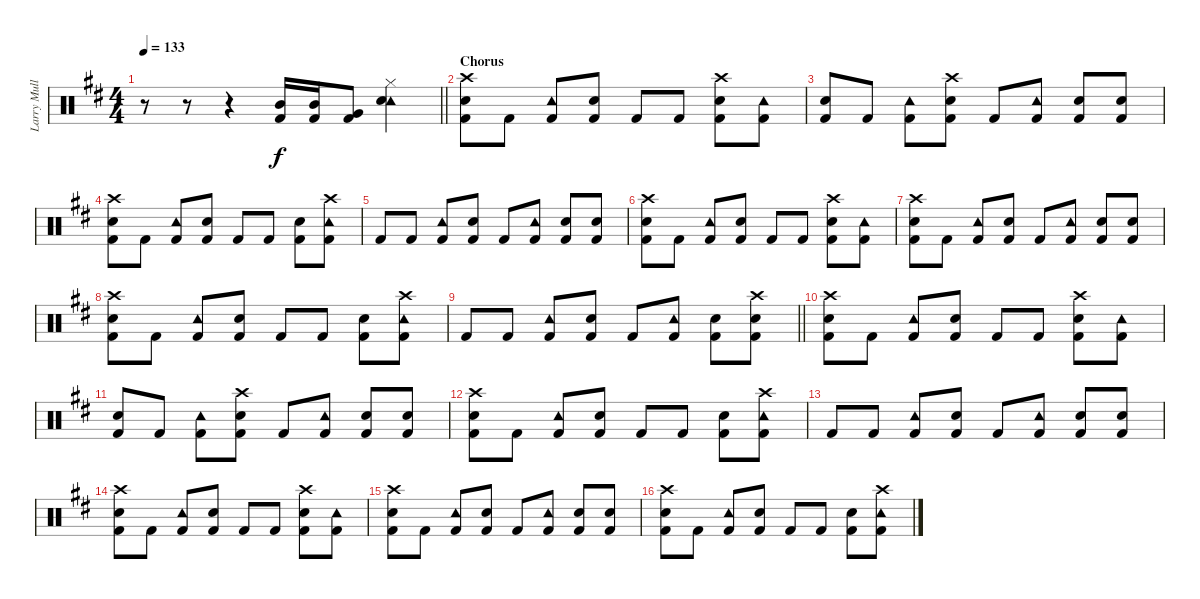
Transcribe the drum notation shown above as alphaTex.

\track ("Larry Mullen Jr." "Larry Mull") {instrument percussion}
\staff {score}
\articulation defaults
\ts (4 4)
\tempo 133
\clef neutral
\barLineRight lightlight
\ks d
r.8{dy f} r.8 r.4 ("Kick (hit) 2" "Mid Tom (hit)").16 ("Kick (hit) 2" "Mid Tom (hit)").16 ("Kick (hit) 2" "Very Low Tom (hit)").8 ("Tambourine (hit)" "Snare (hit) 2" "Hi-Hat (closed)").4 |
\section ("" "Chorus")
("Kick (hit) 2" "Crash high (hit)" "Snare (hit) 2").8 "Kick (hit) 2".8 ("Kick (hit) 2" "Tambourine (hit)").8 ("Kick (hit) 2" "Snare (hit) 2").8 "Kick (hit) 2".8 "Kick (hit) 2".8 ("Kick (hit) 2" "Snare (hit) 2" "Crash high (hit)").8 ("Kick (hit) 2" "Tambourine (hit)").8 |
("Kick (hit) 2" "Snare (hit) 2").8 "Kick (hit) 2".8 ("Kick (hit) 2" "Tambourine (hit)").8 ("Kick (hit) 2" "Snare (hit) 2" "Crash high (hit)").8 "Kick (hit) 2".8 ("Kick (hit) 2" "Tambourine (hit)").8 ("Kick (hit) 2" "Snare (hit) 2").8 ("Kick (hit) 2" "Snare (hit) 2").8 |
("Kick (hit) 2" "Crash high (hit)" "Snare (hit) 2").8 "Kick (hit) 2".8 ("Kick (hit) 2" "Tambourine (hit)").8 ("Kick (hit) 2" "Snare (hit) 2").8 "Kick (hit) 2".8 "Kick (hit) 2".8 ("Kick (hit) 2" "Snare (hit) 2").8 ("Kick (hit) 2" "Tambourine (hit)" "Crash high (hit)").8 |
"Kick (hit) 2".8 "Kick (hit) 2".8 ("Kick (hit) 2" "Tambourine (hit)").8 ("Kick (hit) 2" "Snare (hit) 2").8 "Kick (hit) 2".8 ("Kick (hit) 2" "Tambourine (hit)").8 ("Kick (hit) 2" "Snare (hit) 2").8 ("Kick (hit) 2" "Snare (hit) 2").8 |
("Kick (hit) 2" "Crash high (hit)" "Snare (hit) 2").8 "Kick (hit) 2".8 ("Kick (hit) 2" "Tambourine (hit)").8 ("Kick (hit) 2" "Snare (hit) 2").8 "Kick (hit) 2".8 "Kick (hit) 2".8 ("Kick (hit) 2" "Snare (hit) 2" "Crash high (hit)").8 ("Kick (hit) 2" "Tambourine (hit)").8 |
("Kick (hit) 2" "Snare (hit) 2" "Crash high (hit)").8 "Kick (hit) 2".8 ("Kick (hit) 2" "Tambourine (hit)").8 ("Kick (hit) 2" "Snare (hit) 2").8 "Kick (hit) 2".8 ("Kick (hit) 2" "Tambourine (hit)").8 ("Kick (hit) 2" "Snare (hit) 2").8 ("Kick (hit) 2" "Snare (hit) 2").8 |
("Kick (hit) 2" "Crash high (hit)" "Snare (hit) 2").8 "Kick (hit) 2".8 ("Kick (hit) 2" "Tambourine (hit)").8 ("Kick (hit) 2" "Snare (hit) 2").8 "Kick (hit) 2".8 "Kick (hit) 2".8 ("Kick (hit) 2" "Snare (hit) 2").8 ("Kick (hit) 2" "Tambourine (hit)" "Crash high (hit)").8 |
\barLineRight lightlight "Kick (hit) 2".8 "Kick (hit) 2".8
("Kick (hit) 2" "Tambourine (hit)").8 ("Kick (hit) 2" "Snare (hit) 2").8 "Kick (hit) 2".8 ("Kick (hit) 2" "Tambourine (hit)").8 ("Kick (hit) 2" "Snare (hit) 2").8 ("Kick (hit) 2" "Snare (hit) 2" "Crash high (hit)").8 |
("Kick (hit) 2" "Crash high (hit)" "Snare (hit) 2").8 "Kick (hit) 2".8 ("Kick (hit) 2" "Tambourine (hit)").8 ("Kick (hit) 2" "Snare (hit) 2").8 "Kick (hit) 2".8 "Kick (hit) 2".8 ("Kick (hit) 2" "Snare (hit) 2" "Crash high (hit)").8 ("Kick (hit) 2" "Tambourine (hit)").8 |
("Kick (hit) 2" "Snare (hit) 2").8 "Kick (hit) 2".8 ("Kick (hit) 2" "Tambourine (hit)").8 ("Kick (hit) 2" "Snare (hit) 2" "Crash high (hit)").8 "Kick (hit) 2".8 ("Kick (hit) 2" "Tambourine (hit)").8 ("Kick (hit) 2" "Snare (hit) 2").8 ("Kick (hit) 2" "Snare (hit) 2").8 |
("Kick (hit) 2" "Crash high (hit)" "Snare (hit) 2").8 "Kick (hit) 2".8 ("Kick (hit) 2" "Tambourine (hit)").8 ("Kick (hit) 2" "Snare (hit) 2").8 "Kick (hit) 2".8 "Kick (hit) 2".8 ("Kick (hit) 2" "Snare (hit) 2").8 ("Kick (hit) 2" "Tambourine (hit)" "Crash high (hit)").8 |
"Kick (hit) 2".8 "Kick (hit) 2".8 ("Kick (hit) 2" "Tambourine (hit)").8 ("Kick (hit) 2" "Snare (hit) 2").8 "Kick (hit) 2".8 ("Kick (hit) 2" "Tambourine (hit)").8 ("Kick (hit) 2" "Snare (hit) 2").8 ("Kick (hit) 2" "Snare (hit) 2").8 |
("Kick (hit) 2" "Crash high (hit)" "Snare (hit) 2").8 "Kick (hit) 2".8 ("Kick (hit) 2" "Tambourine (hit)").8 ("Kick (hit) 2" "Snare (hit) 2").8 "Kick (hit) 2".8 "Kick (hit) 2".8 ("Kick (hit) 2" "Snare (hit) 2" "Crash high (hit)").8 ("Kick (hit) 2" "Tambourine (hit)").8 |
("Kick (hit) 2" "Snare (hit) 2" "Crash high (hit)").8 "Kick (hit) 2".8 ("Kick (hit) 2" "Tambourine (hit)").8 ("Kick (hit) 2" "Snare (hit) 2").8 "Kick (hit) 2".8 ("Kick (hit) 2" "Tambourine (hit)").8 ("Kick (hit) 2" "Snare (hit) 2").8 ("Kick (hit) 2" "Snare (hit) 2").8 |
("Kick (hit) 2" "Crash high (hit)" "Snare (hit) 2").8 "Kick (hit) 2".8 ("Kick (hit) 2" "Tambourine (hit)").8 ("Kick (hit) 2" "Snare (hit) 2").8 "Kick (hit) 2".8 "Kick (hit) 2".8 ("Kick (hit) 2" "Snare (hit) 2").8 ("Kick (hit) 2" "Tambourine (hit)" "Crash high (hit)").8
